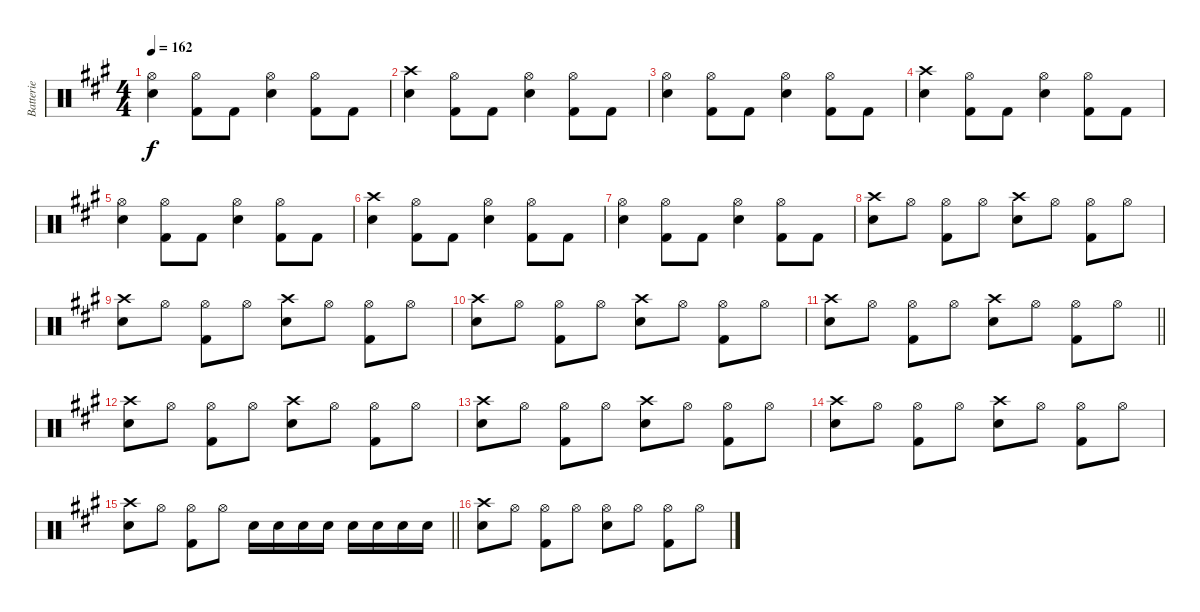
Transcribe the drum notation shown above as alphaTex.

\track ("Batterie" "Batterie") {instrument percussion}
\staff {score}
\articulation defaults
\ts (4 4)
\tempo 162
\clef neutral
\ks a
("Hi-Hat (open)" "Snare (hit) 2").4{dy f} ("Hi-Hat (open)" "Kick (hit) 2").8 "Kick (hit) 2".8 ("Hi-Hat (open)" "Snare (hit) 2").4 ("Hi-Hat (open)" "Kick (hit) 2").8 "Kick (hit) 2".8 |
("Crash high (hit)" "Snare (hit) 2").4 ("Hi-Hat (open)" "Kick (hit) 2").8 "Kick (hit) 2".8 ("Hi-Hat (open)" "Snare (hit) 2").4 ("Hi-Hat (open)" "Kick (hit) 2").8 "Kick (hit) 2".8 |
("Hi-Hat (open)" "Snare (hit) 2").4 ("Hi-Hat (open)" "Kick (hit) 2").8 "Kick (hit) 2".8 ("Hi-Hat (open)" "Snare (hit) 2").4 ("Hi-Hat (open)" "Kick (hit) 2").8 "Kick (hit) 2".8 |
("Crash high (hit)" "Snare (hit) 2").4 ("Hi-Hat (open)" "Kick (hit) 2").8 "Kick (hit) 2".8 ("Hi-Hat (open)" "Snare (hit) 2").4 ("Hi-Hat (open)" "Kick (hit) 2").8 "Kick (hit) 2".8 |
("Hi-Hat (open)" "Snare (hit) 2").4 ("Hi-Hat (open)" "Kick (hit) 2").8 "Kick (hit) 2".8 ("Hi-Hat (open)" "Snare (hit) 2").4 ("Hi-Hat (open)" "Kick (hit) 2").8 "Kick (hit) 2".8 |
("Crash high (hit)" "Snare (hit) 2").4 ("Hi-Hat (open)" "Kick (hit) 2").8 "Kick (hit) 2".8 ("Hi-Hat (open)" "Snare (hit) 2").4 ("Hi-Hat (open)" "Kick (hit) 2").8 "Kick (hit) 2".8 |
("Hi-Hat (open)" "Snare (hit) 2").4 ("Hi-Hat (open)" "Kick (hit) 2").8 "Kick (hit) 2".8 ("Hi-Hat (open)" "Snare (hit) 2").4 ("Hi-Hat (open)" "Kick (hit) 2").8 "Kick (hit) 2".8 |
("Crash high (hit)" "Snare (hit) 2").8 "Hi-Hat (open)".8 ("Hi-Hat (open)" "Kick (hit) 2").8 "Hi-Hat (open)".8 ("Crash high (hit)" "Snare (hit) 2").8 "Hi-Hat (open)".8 ("Hi-Hat (open)" "Kick (hit) 2").8 "Hi-Hat (open)".8 |
("Crash high (hit)" "Snare (hit) 2").8 "Hi-Hat (open)".8 ("Hi-Hat (open)" "Kick (hit) 2").8 "Hi-Hat (open)".8 ("Crash high (hit)" "Snare (hit) 2").8 "Hi-Hat (open)".8 ("Hi-Hat (open)" "Kick (hit) 2").8 "Hi-Hat (open)".8 |
("Crash high (hit)" "Snare (hit) 2").8 "Hi-Hat (open)".8 ("Hi-Hat (open)" "Kick (hit) 2").8 "Hi-Hat (open)".8 ("Crash high (hit)" "Snare (hit) 2").8 "Hi-Hat (open)".8 ("Hi-Hat (open)" "Kick (hit) 2").8 "Hi-Hat (open)".8 |
\barLineRight lightlight
("Crash high (hit)" "Snare (hit) 2").8 "Hi-Hat (open)".8 ("Hi-Hat (open)" "Kick (hit) 2").8 "Hi-Hat (open)".8 ("Crash high (hit)" "Snare (hit) 2").8 "Hi-Hat (open)".8 ("Hi-Hat (open)" "Kick (hit) 2").8 "Hi-Hat (open)".8 |
("Crash high (hit)" "Snare (hit) 2").8 "Hi-Hat (open)".8 ("Hi-Hat (open)" "Kick (hit) 2").8 "Hi-Hat (open)".8 ("Crash high (hit)" "Snare (hit) 2").8 "Hi-Hat (open)".8 ("Hi-Hat (open)" "Kick (hit) 2").8 "Hi-Hat (open)".8 |
("Crash high (hit)" "Snare (hit) 2").8 "Hi-Hat (open)".8 ("Hi-Hat (open)" "Kick (hit) 2").8 "Hi-Hat (open)".8 ("Crash high (hit)" "Snare (hit) 2").8 "Hi-Hat (open)".8 ("Hi-Hat (open)" "Kick (hit) 2").8 "Hi-Hat (open)".8 |
("Crash high (hit)" "Snare (hit) 2").8 "Hi-Hat (open)".8 ("Hi-Hat (open)" "Kick (hit) 2").8 "Hi-Hat (open)".8 ("Crash high (hit)" "Snare (hit) 2").8 "Hi-Hat (open)".8 ("Hi-Hat (open)" "Kick (hit) 2").8 "Hi-Hat (open)".8 |
\barLineRight lightlight
("Crash high (hit)" "Snare (hit) 2").8 "Hi-Hat (open)".8 ("Hi-Hat (open)" "Kick (hit) 2").8 "Hi-Hat (open)".8 "Snare (hit) 2".16 "Snare (hit) 2".16 "Snare (hit) 2".16 "Snare (hit) 2".16 "Snare (hit) 2".16 "Snare (hit) 2".16 "Snare (hit) 2".16 "Snare (hit) 2".16 |
("Crash high (hit)" "Snare (hit) 2").8 "Hi-Hat (open)".8 ("Hi-Hat (open)" "Kick (hit) 2").8 "Hi-Hat (open)".8 ("Hi-Hat (open)" "Snare (hit) 2").8 "Hi-Hat (open)".8 ("Hi-Hat (open)" "Kick (hit) 2").8 "Hi-Hat (open)".8
